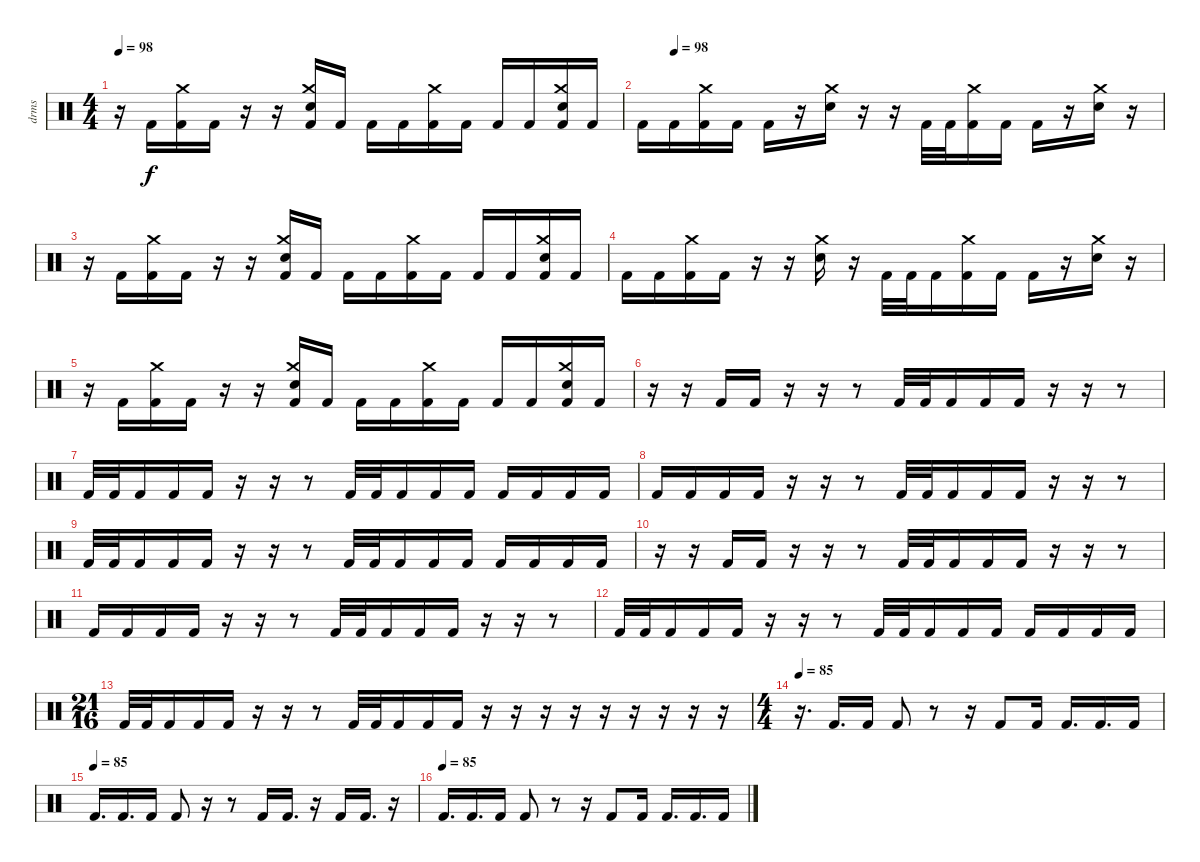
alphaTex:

\track ("drms" "drms") {instrument percussion}
\staff {score}
\articulation defaults
\ts (4 4)
\tempo 98
\clef neutral
\ks c
r.16{dy f} "Kick (hit) 2".16 ("Crash medium (hit)" "Kick (hit) 2").16 "Kick (hit) 2".16 r.16 r.16 ("Crash medium (hit)" "Electric Snare (hit)" "Kick (hit) 2").16 "Kick (hit) 2".16 "Kick (hit) 2".16 "Kick (hit) 2".16 ("Crash medium (hit)" "Kick (hit) 2").16 "Kick (hit) 2".16 "Kick (hit) 2".16 "Kick (hit) 2".16 ("Crash medium (hit)" "Electric Snare (hit)" "Kick (hit) 2").16 "Kick (hit) 2".16 |
\tempo (98 0.0625)
"Kick (hit) 2".16 "Kick (hit) 2".16 ("Crash medium (hit)" "Kick (hit) 2").16 "Kick (hit) 2".16 "Kick (hit) 2".16 r.16 ("Crash medium (hit)" "Electric Snare (hit)").16 r.16 r.16 "Kick (hit) 2".32 "Kick (hit) 2".32 ("Crash medium (hit)" "Kick (hit) 2").16 "Kick (hit) 2".16 "Kick (hit) 2".16 r.16 ("Crash medium (hit)" "Electric Snare (hit)").16 r.16 |
r.16 "Kick (hit) 2".16 ("Crash medium (hit)" "Kick (hit) 2").16 "Kick (hit) 2".16 r.16 r.16 ("Crash medium (hit)" "Electric Snare (hit)" "Kick (hit) 2").16 "Kick (hit) 2".16 "Kick (hit) 2".16 "Kick (hit) 2".16 ("Crash medium (hit)" "Kick (hit) 2").16 "Kick (hit) 2".16 "Kick (hit) 2".16 "Kick (hit) 2".16 ("Crash medium (hit)" "Electric Snare (hit)" "Kick (hit) 2").16 "Kick (hit) 2".16 |
"Kick (hit) 2".16 "Kick (hit) 2".16 ("Crash medium (hit)" "Kick (hit) 2").16 "Kick (hit) 2".16 r.16 r.16 ("Crash medium (hit)" "Electric Snare (hit)").16 r.16 "Kick (hit) 2".32 "Kick (hit) 2".32 "Kick (hit) 2".16 ("Crash medium (hit)" "Kick (hit) 2").16 "Kick (hit) 2".16 "Kick (hit) 2".16 r.16 ("Crash medium (hit)" "Electric Snare (hit)").16 r.16 |
r.16 "Kick (hit) 2".16 ("Crash medium (hit)" "Kick (hit) 2").16 "Kick (hit) 2".16 r.16 r.16 ("Crash medium (hit)" "Electric Snare (hit)" "Kick (hit) 2").16 "Kick (hit) 2".16 "Kick (hit) 2".16 "Kick (hit) 2".16 ("Crash medium (hit)" "Kick (hit) 2").16 "Kick (hit) 2".16 "Kick (hit) 2".16 "Kick (hit) 2".16 ("Crash medium (hit)" "Electric Snare (hit)" "Kick (hit) 2").16 "Kick (hit) 2".16 |
r.16 r.16 "Kick (hit) 2".16 "Kick (hit) 2".16 r.16 r.16 r.8 "Kick (hit) 2".32 "Kick (hit) 2".32 "Kick (hit) 2".16 "Kick (hit) 2".16 "Kick (hit) 2".16 r.16 r.16 r.8 |
"Kick (hit) 2".32 "Kick (hit) 2".32 "Kick (hit) 2".16 "Kick (hit) 2".16 "Kick (hit) 2".16 r.16 r.16 r.8 "Kick (hit) 2".32 "Kick (hit) 2".32 "Kick (hit) 2".16 "Kick (hit) 2".16 "Kick (hit) 2".16 "Kick (hit) 2".16 "Kick (hit) 2".16 "Kick (hit) 2".16 "Kick (hit) 2".16 |
"Kick (hit) 2".16 "Kick (hit) 2".16 "Kick (hit) 2".16 "Kick (hit) 2".16 r.16 r.16 r.8 "Kick (hit) 2".32 "Kick (hit) 2".32 "Kick (hit) 2".16 "Kick (hit) 2".16 "Kick (hit) 2".16 r.16 r.16 r.8 |
"Kick (hit) 2".32 "Kick (hit) 2".32 "Kick (hit) 2".16 "Kick (hit) 2".16 "Kick (hit) 2".16 r.16 r.16 r.8 "Kick (hit) 2".32 "Kick (hit) 2".32 "Kick (hit) 2".16 "Kick (hit) 2".16 "Kick (hit) 2".16 "Kick (hit) 2".16 "Kick (hit) 2".16 "Kick (hit) 2".16 "Kick (hit) 2".16 |
r.16 r.16 "Kick (hit) 2".16 "Kick (hit) 2".16 r.16 r.16 r.8 "Kick (hit) 2".32 "Kick (hit) 2".32 "Kick (hit) 2".16 "Kick (hit) 2".16 "Kick (hit) 2".16 r.16 r.16 r.8 |
"Kick (hit) 2".16 "Kick (hit) 2".16 "Kick (hit) 2".16 "Kick (hit) 2".16 r.16 r.16 r.8 "Kick (hit) 2".32 "Kick (hit) 2".32 "Kick (hit) 2".16 "Kick (hit) 2".16 "Kick (hit) 2".16 r.16 r.16 r.8 |
"Kick (hit) 2".32 "Kick (hit) 2".32 "Kick (hit) 2".16 "Kick (hit) 2".16 "Kick (hit) 2".16 r.16 r.16 r.8 "Kick (hit) 2".32 "Kick (hit) 2".32 "Kick (hit) 2".16 "Kick (hit) 2".16 "Kick (hit) 2".16 "Kick (hit) 2".16 "Kick (hit) 2".16 "Kick (hit) 2".16 "Kick (hit) 2".16 |
\ts (21 16)
"Kick (hit) 2".32 "Kick (hit) 2".32 "Kick (hit) 2".16 "Kick (hit) 2".16 "Kick (hit) 2".16 r.16 r.16 r.8 "Kick (hit) 2".32 "Kick (hit) 2".32 "Kick (hit) 2".16 "Kick (hit) 2".16 "Kick (hit) 2".16 r.16 r.16 r.16 r.16 r.16 r.16 r.16 r.16 r.16 |
\ts (4 4)
\tempo 85
r.16{d} "Kick (hit) 2".16{d} "Kick (hit) 2".16 "Kick (hit) 2".8 r.8 r.16 "Kick (hit) 2".8 "Kick (hit) 2".16 "Kick (hit) 2".16{d} "Kick (hit) 2".16{d} "Kick (hit) 2".16 |
\tempo (85)
"Kick (hit) 2".16{d} "Kick (hit) 2".16{d} "Kick (hit) 2".16 "Kick (hit) 2".8 r.16 r.8 "Kick (hit) 2".16 "Kick (hit) 2".16{d} r.16 "Kick (hit) 2".16 "Kick (hit) 2".16{d} r.16 |
\tempo (85)
"Kick (hit) 2".16{d} "Kick (hit) 2".16{d} "Kick (hit) 2".16 "Kick (hit) 2".8 r.8 r.16 "Kick (hit) 2".8 "Kick (hit) 2".16 "Kick (hit) 2".16{d} "Kick (hit) 2".16{d} "Kick (hit) 2".16
